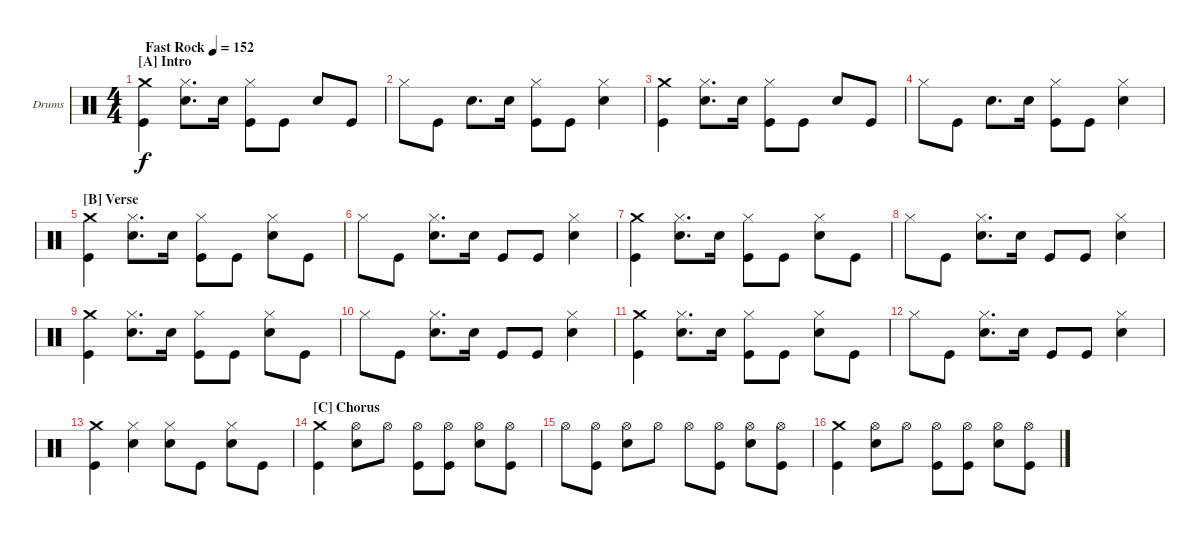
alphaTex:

\defaultSystemsLayout 4
\bracketExtendMode groupsimilarinstruments
\firstSystemTrackNameOrientation horizontal
\otherSystemsTrackNameOrientation horizontal
\track ("Drumkit" "Drums") {instrument percussion}
\staff {score}
\articulation defaults
\ts (4 4)
\section ("A" "Intro")
\tempo (152 "Fast Rock")
\clef neutral
\scale
1.05675
\ks c
("Crash medium (hit)" "Kick (hit)").4{dy f} ("Hi-Hat (closed)" "Snare (hit) 2").8{d} "Snare (hit) 2".16 ("Hi-Hat (closed)" "Kick (hit)").8 "Kick (hit)".8 "Snare (hit) 2".8 "Kick (hit)".8 |
\scale
0.943253 "Hi-Hat (closed)".8 "Kick (hit)".8 "Snare (hit) 2".8{d} "Snare (hit) 2".16 ("Hi-Hat (closed)" "Kick (hit)").8 "Kick (hit)".8 ("Hi-Hat (closed)" "Snare (hit) 2").4 |
\scale
1.02648 ("Crash medium (hit)" "Kick (hit)").4 ("Hi-Hat (closed)" "Snare (hit) 2").8{d} "Snare (hit) 2".16 ("Hi-Hat (closed)" "Kick (hit)").8 "Kick (hit)".8 "Snare (hit) 2".8 "Kick (hit)".8 |
\scale
0.973518 "Hi-Hat (closed)".8 "Kick (hit)".8 "Snare (hit) 2".8{d} "Snare (hit) 2".16 ("Hi-Hat (closed)" "Kick (hit)").8 "Kick (hit)".8 ("Hi-Hat (closed)" "Snare (hit) 2").4 |
\section ("B" "Verse")
\scale
1.02648 ("Crash medium (hit)" "Kick (hit)").4 ("Hi-Hat (closed)" "Snare (hit) 2").8{d} "Snare (hit) 2".16 ("Hi-Hat (closed)" "Kick (hit)").8 "Kick (hit)".8 ("Hi-Hat (closed)" "Snare (hit) 2").8 "Kick (hit)".8 |
\scale
0.973518 "Hi-Hat (closed)".8 "Kick (hit)".8 ("Hi-Hat (closed)" "Snare (hit) 2").8{d} "Snare (hit) 2".16 "Kick (hit)".8 "Kick (hit)".8 ("Hi-Hat (closed)" "Snare (hit) 2").4 |
\scale
1.02648 ("Crash medium (hit)" "Kick (hit)").4 ("Hi-Hat (closed)" "Snare (hit) 2").8{d} "Snare (hit) 2".16 ("Hi-Hat (closed)" "Kick (hit)").8 "Kick (hit)".8 ("Hi-Hat (closed)" "Snare (hit) 2").8 "Kick (hit)".8 |
\scale
0.973518 "Hi-Hat (closed)".8 "Kick (hit)".8 ("Hi-Hat (closed)" "Snare (hit) 2").8{d} "Snare (hit) 2".16 "Kick (hit)".8 "Kick (hit)".8 ("Hi-Hat (closed)" "Snare (hit) 2").4 |
\scale
1.02648 ("Crash medium (hit)" "Kick (hit)").4 ("Hi-Hat (closed)" "Snare (hit) 2").8{d} "Snare (hit) 2".16 ("Hi-Hat (closed)" "Kick (hit)").8 "Kick (hit)".8 ("Hi-Hat (closed)" "Snare (hit) 2").8 "Kick (hit)".8 |
\scale
0.973518 "Hi-Hat (closed)".8 "Kick (hit)".8 ("Hi-Hat (closed)" "Snare (hit) 2").8{d} "Snare (hit) 2".16 "Kick (hit)".8 "Kick (hit)".8 ("Hi-Hat (closed)" "Snare (hit) 2").4 |
\scale
1.02648 ("Crash medium (hit)" "Kick (hit)").4 ("Hi-Hat (closed)" "Snare (hit) 2").8{d} "Snare (hit) 2".16 ("Hi-Hat (closed)" "Kick (hit)").8 "Kick (hit)".8 ("Hi-Hat (closed)" "Snare (hit) 2").8 "Kick (hit)".8 |
\scale
0.973518 "Hi-Hat (closed)".8 "Kick (hit)".8 ("Hi-Hat (closed)" "Snare (hit) 2").8{d} "Snare (hit) 2".16 "Kick (hit)".8 "Kick (hit)".8 ("Hi-Hat (closed)" "Snare (hit) 2").4 |
\scale
1.02648 ("Crash medium (hit)" "Kick (hit)").4 ("Hi-Hat (closed)" "Snare (hit) 2").4 ("Hi-Hat (closed)" "Snare (hit) 2").8 "Kick (hit)".8 ("Hi-Hat (closed)" "Snare (hit) 2").8 "Kick (hit)".8 |
\section ("C" "Chorus")
\scale
0.973518 ("Crash medium (hit)" "Kick (hit)").4 ("Hi-Hat (open)" "Snare (hit) 2").8 "Hi-Hat (open)".8 ("Hi-Hat (open)" "Kick (hit)").8 ("Hi-Hat (open)" "Kick (hit)").8 ("Hi-Hat (open)" "Snare (hit) 2").8 ("Hi-Hat (open)" "Kick (hit)").8 |
\scale
1.02648 "Hi-Hat (open)".8 ("Hi-Hat (open)" "Kick (hit)").8 ("Hi-Hat (open)" "Snare (hit) 2").8 "Hi-Hat (open)".8 "Hi-Hat (open)".8 ("Hi-Hat (open)" "Kick (hit)").8 ("Hi-Hat (open)" "Snare (hit) 2").8 ("Hi-Hat (open)" "Kick (hit)").8 |
\scale
0.973518 ("Crash medium (hit)" "Kick (hit)").4 ("Hi-Hat (open)" "Snare (hit) 2").8 "Hi-Hat (open)".8 ("Hi-Hat (open)" "Kick (hit)").8 ("Hi-Hat (open)" "Kick (hit)").8 ("Hi-Hat (open)" "Snare (hit) 2").8 ("Hi-Hat (open)" "Kick (hit)").8
